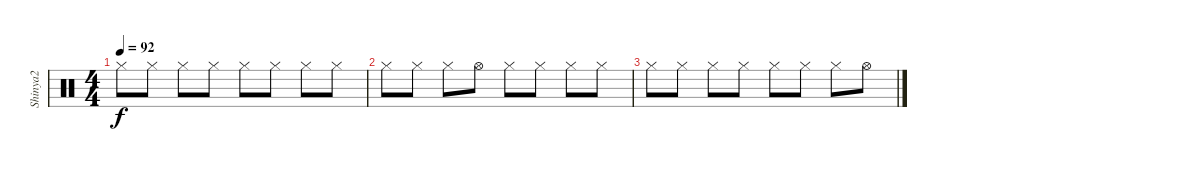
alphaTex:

\track ("Shinya2" "Shinya2") {instrument percussion}
\staff {score}
\articulation defaults
\ts (4 4)
\tempo 92
\clef neutral
\ks c "Hi-Hat (closed)".8{dy f} "Hi-Hat (closed)".8 "Hi-Hat (closed)".8 "Hi-Hat (closed)".8 "Hi-Hat (closed)".8 "Hi-Hat (closed)".8 "Hi-Hat (closed)".8 "Hi-Hat (closed)".8
|
"Hi-Hat (closed)".8 "Hi-Hat (closed)".8 "Hi-Hat (closed)".8 "Hi-Hat (open)".8 "Hi-Hat (closed)".8 "Hi-Hat (closed)".8 "Hi-Hat (closed)".8 "Hi-Hat (closed)".8 |
"Hi-Hat (closed)".8 "Hi-Hat (closed)".8 "Hi-Hat (closed)".8 "Hi-Hat (closed)".8 "Hi-Hat (closed)".8 "Hi-Hat (closed)".8 "Hi-Hat (closed)".8 "Hi-Hat (open)".8
